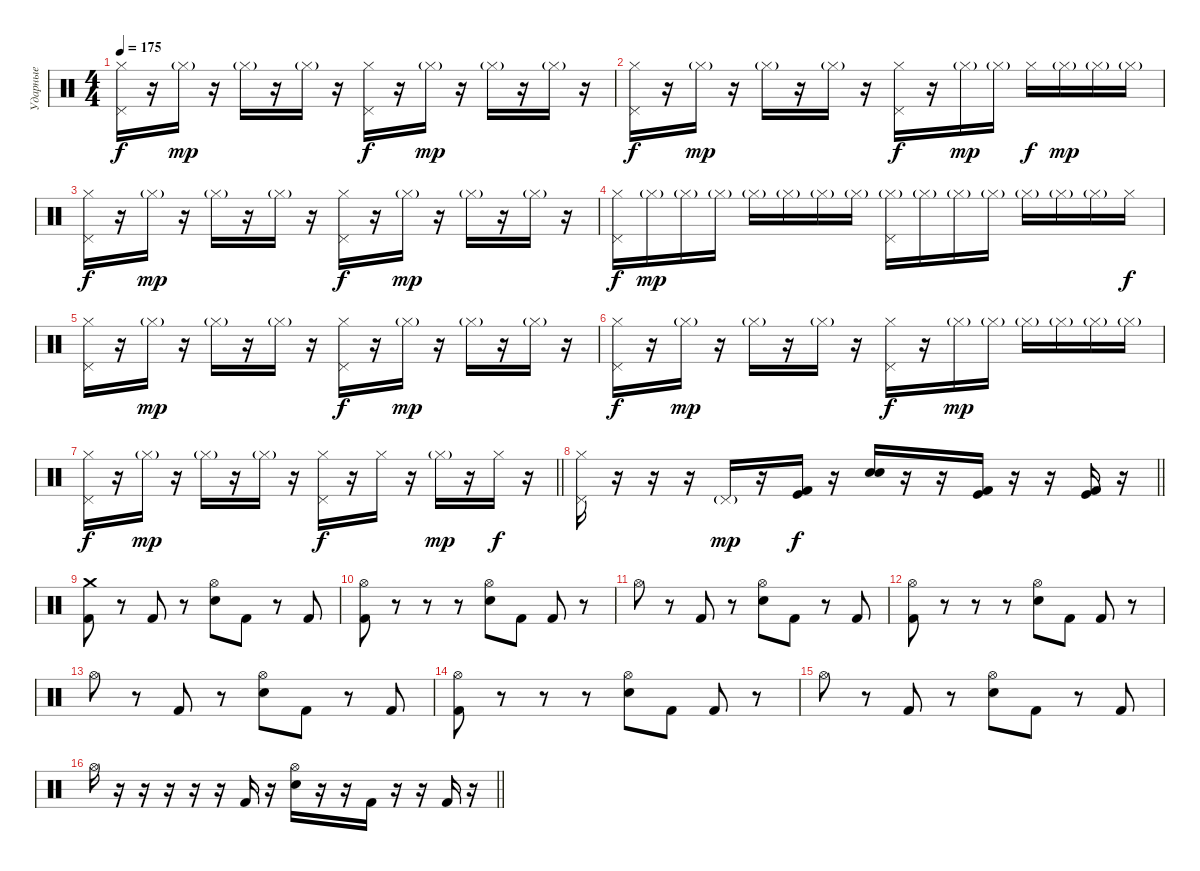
\track ("Ударные" "Ударные") {instrument percussion}
\staff {score}
\articulation defaults
\ts (4 4)
\tempo 175
\clef neutral
\ks c
("Hi-Hat (closed)" "Pedal Hi-Hat (hit)").16{dy f} r.16 "Hi-Hat (closed)"{g}.16{dy mp} r.16 "Hi-Hat (closed)"{g}.16 r.16 "Hi-Hat (closed)"{g}.16 r.16 ("Hi-Hat (closed)" "Pedal Hi-Hat (hit)").16{dy f} r.16 "Hi-Hat (closed)"{g}.16{dy mp} r.16 "Hi-Hat (closed)"{g}.16 r.16 "Hi-Hat (closed)"{g}.16 r.16 |
("Hi-Hat (closed)" "Pedal Hi-Hat (hit)").16{dy f} r.16 "Hi-Hat (closed)"{g}.16{dy mp} r.16 "Hi-Hat (closed)"{g}.16 r.16 "Hi-Hat (closed)"{g}.16 r.16 ("Hi-Hat (closed)" "Pedal Hi-Hat (hit)").16{dy f} r.16 "Hi-Hat (closed)"{g}.16{dy mp} "Hi-Hat (closed)"{g}.16 "Hi-Hat (closed)".16{dy f} "Hi-Hat (closed)"{g}.16{dy mp} "Hi-Hat (closed)"{g}.16 "Hi-Hat (closed)"{g}.16 |
("Hi-Hat (closed)" "Pedal Hi-Hat (hit)").16{dy f} r.16 "Hi-Hat (closed)"{g}.16{dy mp} r.16 "Hi-Hat (closed)"{g}.16 r.16 "Hi-Hat (closed)"{g}.16 r.16 ("Hi-Hat (closed)" "Pedal Hi-Hat (hit)").16{dy f} r.16 "Hi-Hat (closed)"{g}.16{dy mp} r.16 "Hi-Hat (closed)"{g}.16 r.16 "Hi-Hat (closed)"{g}.16 r.16 |
("Hi-Hat (closed)" "Pedal Hi-Hat (hit)").16{dy f} "Hi-Hat (closed)"{g}.16{dy mp} "Hi-Hat (closed)"{g}.16 "Hi-Hat (closed)"{g}.16 "Hi-Hat (closed)"{g}.16 "Hi-Hat (closed)"{g}.16 "Hi-Hat (closed)"{g}.16 "Hi-Hat (closed)"{g}.16 ("Hi-Hat (closed)"{g} "Pedal Hi-Hat (hit)").16 "Hi-Hat (closed)"{g}.16 "Hi-Hat (closed)"{g}.16 "Hi-Hat (closed)"{g}.16 "Hi-Hat (closed)"{g}.16 "Hi-Hat (closed)"{g}.16 "Hi-Hat (closed)"{g}.16 "Hi-Hat (closed)".16{dy f} |
("Hi-Hat (closed)" "Pedal Hi-Hat (hit)").16 r.16 "Hi-Hat (closed)"{g}.16{dy mp} r.16 "Hi-Hat (closed)"{g}.16 r.16 "Hi-Hat (closed)"{g}.16 r.16 ("Hi-Hat (closed)" "Pedal Hi-Hat (hit)").16{dy f} r.16 "Hi-Hat (closed)"{g}.16{dy mp} r.16 "Hi-Hat (closed)"{g}.16 r.16 "Hi-Hat (closed)"{g}.16 r.16 |
("Hi-Hat (closed)" "Pedal Hi-Hat (hit)").16{dy f} r.16 "Hi-Hat (closed)"{g}.16{dy mp} r.16 "Hi-Hat (closed)"{g}.16 r.16 "Hi-Hat (closed)"{g}.16 r.16 ("Hi-Hat (closed)" "Pedal Hi-Hat (hit)").16{dy f} r.16 "Hi-Hat (closed)"{g}.16{dy mp} "Hi-Hat (closed)"{g}.16 "Hi-Hat (closed)"{g}.16 "Hi-Hat (closed)"{g}.16 "Hi-Hat (closed)"{g}.16 "Hi-Hat (closed)"{g}.16 |
\barLineRight lightlight
("Hi-Hat (closed)" "Pedal Hi-Hat (hit)").16{dy f} r.16 "Hi-Hat (closed)"{g}.16{dy mp} r.16 "Hi-Hat (closed)"{g}.16 r.16 "Hi-Hat (closed)"{g}.16 r.16 ("Hi-Hat (closed)" "Pedal Hi-Hat (hit)").16{dy f} r.16 "Hi-Hat (closed)".16 r.16 "Hi-Hat (closed)"{g}.16{dy mp} r.16 "Hi-Hat (closed)".16{dy f} r.16 |
\section ("" " ")
\barLineRight lightlight
("Hi-Hat (closed)" "Pedal Hi-Hat (hit)").16 r.16 r.16 r.16 "Pedal Hi-Hat (hit)"{g}.16{dy mp} r.16 ("Kick (hit)" "Kick (hit) 2").16{dy f} r.16 ("Electric Snare (hit)" "Electric Snare (hit)").16 r.16 r.16 ("Kick (hit)" "Kick (hit) 2").16 r.16 r.16 ("Kick (hit)" "Kick (hit) 2").16 r.16 |
("Crash medium (hit)" "Kick (hit) 2").8 r.8 "Kick (hit) 2".8 r.8 ("Hi-Hat (open)" "Electric Snare (hit)").8 "Kick (hit) 2".8 r.8 "Kick (hit) 2".8 |
("Hi-Hat (open)" "Kick (hit) 2").8 r.8 r.8 r.8 ("Hi-Hat (open)" "Electric Snare (hit)").8 "Kick (hit) 2".8 "Kick (hit) 2".8 r.8 |
"Hi-Hat (open)".8 r.8 "Kick (hit) 2".8 r.8 ("Hi-Hat (open)" "Electric Snare (hit)").8 "Kick (hit) 2".8 r.8 "Kick (hit) 2".8 |
("Hi-Hat (open)" "Kick (hit) 2").8 r.8 r.8 r.8 ("Hi-Hat (open)" "Electric Snare (hit)").8 "Kick (hit) 2".8 "Kick (hit) 2".8 r.8 |
"Hi-Hat (open)".8 r.8 "Kick (hit) 2".8 r.8 ("Hi-Hat (open)" "Electric Snare (hit)").8 "Kick (hit) 2".8 r.8 "Kick (hit) 2".8 |
("Hi-Hat (open)" "Kick (hit) 2").8 r.8 r.8 r.8 ("Hi-Hat (open)" "Electric Snare (hit)").8 "Kick (hit) 2".8 "Kick (hit) 2".8 r.8 |
"Hi-Hat (open)".8 r.8 "Kick (hit) 2".8 r.8 ("Hi-Hat (open)" "Electric Snare (hit)").8 "Kick (hit) 2".8 r.8 "Kick (hit) 2".8 |
\barLineRight lightlight "Hi-Hat (open)".16
r.16 r.16 r.16 r.16 r.16 "Kick (hit) 2".16 r.16 ("Hi-Hat (open)" "Electric Snare (hit)").16 r.16 r.16 "Kick (hit) 2".16 r.16 r.16 "Kick (hit) 2".16 r.16
